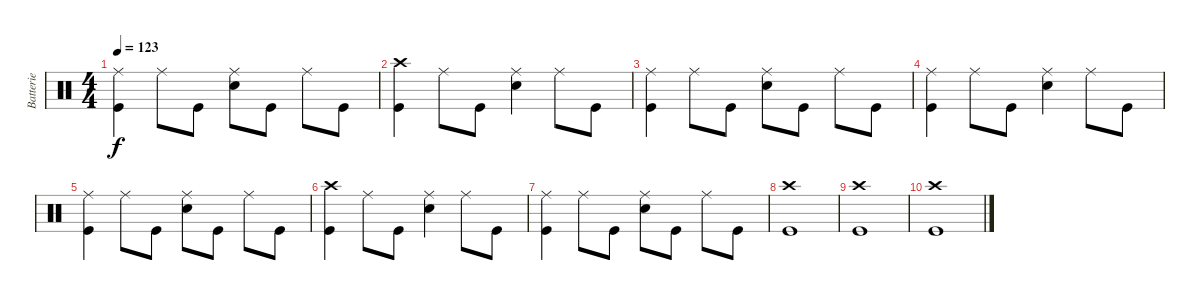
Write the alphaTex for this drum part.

\track ("Batterie" "Batterie") {instrument percussion}
\staff {score}
\articulation defaults
\ts (4 4)
\tempo 123
\clef neutral
\ks c
("Ride (middle)" "Kick (hit)").4{dy f} "Ride (middle)".8 "Kick (hit)".8 ("Snare (hit) 2" "Ride (middle)").8 "Kick (hit)".8 "Ride (middle)".8 "Kick (hit)".8 |
("Kick (hit)" "Crash high (hit)").4 "Ride (middle)".8 "Kick (hit)".8 ("Ride (middle)" "Snare (hit) 2").4 "Ride (middle)".8 "Kick (hit)".8 |
("Ride (middle)" "Kick (hit)").4 "Ride (middle)".8 "Kick (hit)".8 ("Snare (hit) 2" "Ride (middle)").8 "Kick (hit)".8 "Ride (middle)".8 "Kick (hit)".8 |
("Kick (hit)" "Ride (middle)").4 "Ride (middle)".8 "Kick (hit)".8 ("Ride (middle)" "Snare (hit) 2").4 "Ride (middle)".8 "Kick (hit)".8 |
("Ride (middle)" "Kick (hit)").4 "Ride (middle)".8 "Kick (hit)".8 ("Snare (hit) 2" "Ride (middle)").8 "Kick (hit)".8 "Ride (middle)".8 "Kick (hit)".8 |
("Kick (hit)" "Crash high (hit)").4 "Ride (middle)".8 "Kick (hit)".8 ("Ride (middle)" "Snare (hit) 2").4 "Ride (middle)".8 "Kick (hit)".8 |
("Ride (middle)" "Kick (hit)").4 "Ride (middle)".8 "Kick (hit)".8 ("Snare (hit) 2" "Ride (middle)").8 "Kick (hit)".8 "Ride (middle)".8 "Kick (hit)".8 |
("Kick (hit)" "Crash high (hit)").1 |
("Kick (hit)" "Crash high (hit)").1 |
("Crash high (hit)" "Kick (hit)").1
